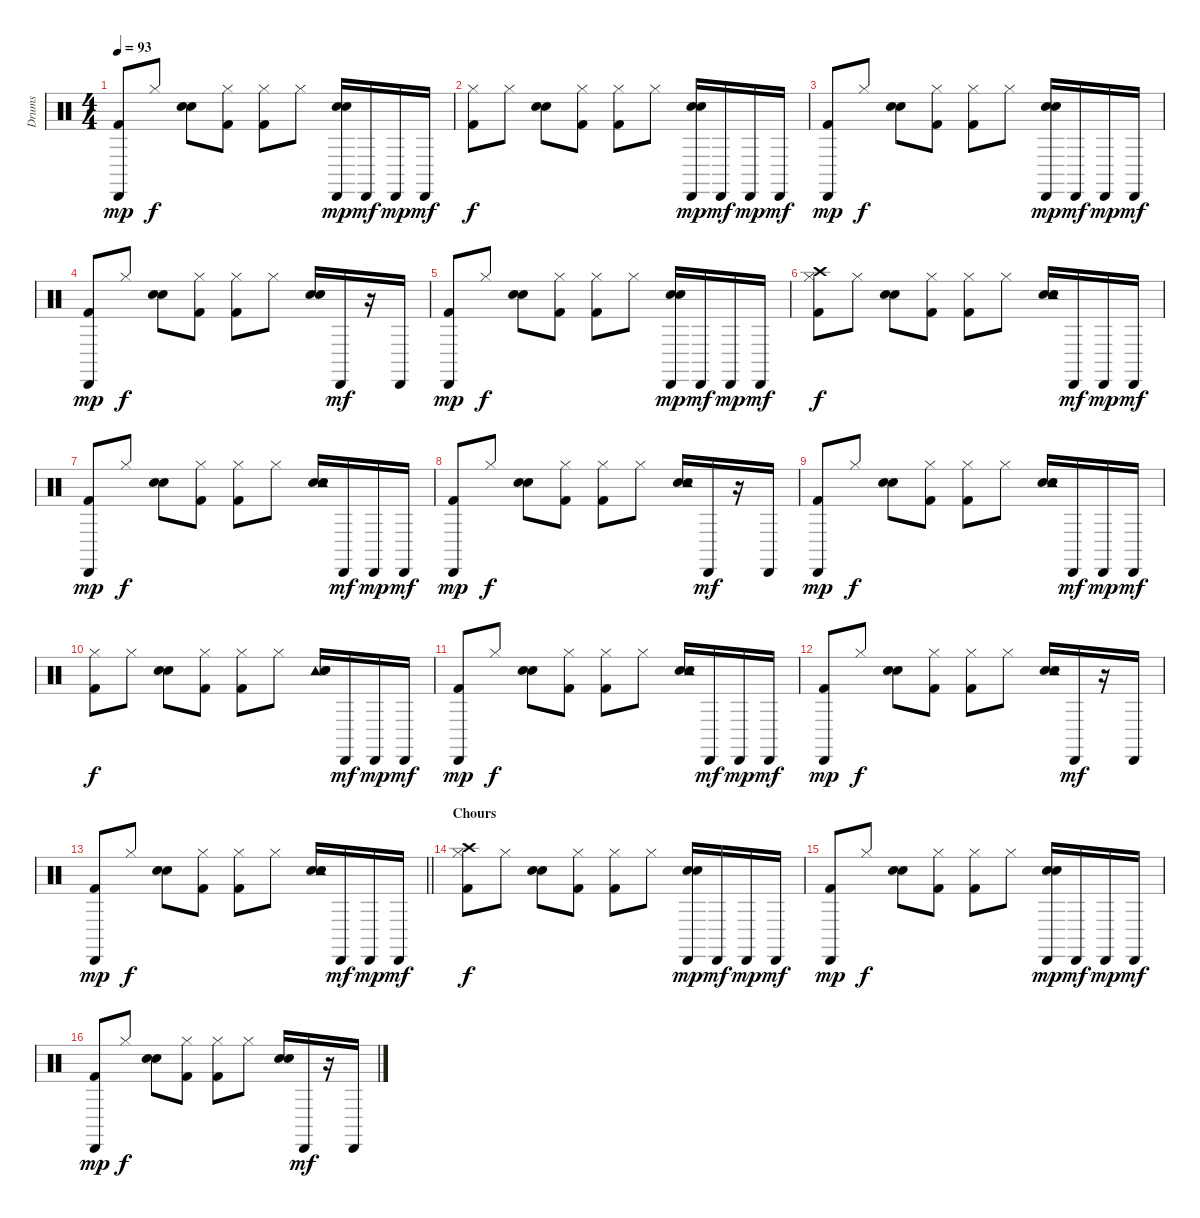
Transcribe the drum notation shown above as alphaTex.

\track ("Drums" "Drums") {instrument percussion}
\staff {score}
\articulation defaults
\ts (4 4)
\tempo 93
\clef neutral
\ks c
("Kick (hit) 2" "Cabasa (hit)").8{dy mp} "Hi-Hat (closed)".8{dy f} ("Hand Clap (hit)" "Snare (hit) 2").8 ("Hi-Hat (closed)" "Kick (hit) 2").8 ("Kick (hit) 2" "Hi-Hat (closed)").8 "Hi-Hat (closed)".8 ("Cabasa (hit)" "Snare (hit) 2" "Hand Clap (hit)").16{dy mp} "Cabasa (hit)".16{dy mf} "Cabasa (hit)".16{dy mp} "Cabasa (hit)".16{dy mf} |
("Hi-Hat (closed)" "Kick (hit) 2").8{dy f} "Hi-Hat (closed)".8 ("Hand Clap (hit)" "Snare (hit) 2").8 ("Kick (hit) 2" "Hi-Hat (closed)").8 ("Kick (hit) 2" "Hi-Hat (closed)").8 "Hi-Hat (closed)".8 ("Cabasa (hit)" "Snare (hit) 2" "Hand Clap (hit)").16{dy mp} "Cabasa (hit)".16{dy mf} "Cabasa (hit)".16{dy mp} "Cabasa (hit)".16{dy mf} |
("Cabasa (hit)" "Kick (hit) 2").8{dy mp} "Hi-Hat (closed)".8{dy f} ("Snare (hit) 2" "Hand Clap (hit)").8 ("Kick (hit) 2" "Hi-Hat (closed)").8 ("Kick (hit) 2" "Hi-Hat (closed)").8 "Hi-Hat (closed)".8 ("Snare (hit) 2" "Cabasa (hit)" "Hand Clap (hit)").16{dy mp} "Cabasa (hit)".16{dy mf} "Cabasa (hit)".16{dy mp} "Cabasa (hit)".16{dy mf} |
("Cabasa (hit)" "Kick (hit) 2").8{dy mp} "Hi-Hat (closed)".8{dy f} ("Snare (hit) 2" "Hand Clap (hit)").8 ("Kick (hit) 2" "Hi-Hat (closed)").8 ("Hi-Hat (closed)" "Kick (hit) 2").8 "Hi-Hat (closed)".8 ("Hand Clap (hit)" "Snare (hit) 2").16 "Cabasa (hit)".16{dy mf} r.16 "Cabasa (hit)".16 |
("Cabasa (hit)" "Kick (hit) 2").8{dy mp} "Hi-Hat (closed)".8{dy f} ("Snare (hit) 2" "Hand Clap (hit)").8 ("Kick (hit) 2" "Hi-Hat (closed)").8 ("Kick (hit) 2" "Hi-Hat (closed)").8 "Hi-Hat (closed)".8 ("Snare (hit) 2" "Hand Clap (hit)" "Cabasa (hit)").16{dy mp} "Cabasa (hit)".16{dy mf} "Cabasa (hit)".16{dy mp} "Cabasa (hit)".16{dy mf} |
("Hi-Hat (closed)" "Kick (hit) 2" "Crash high (hit)").8{dy f} "Hi-Hat (closed)".8 ("Hand Clap (hit)" "Snare (hit) 2").8 ("Kick (hit) 2" "Hi-Hat (closed)").8 ("Kick (hit) 2" "Hi-Hat (closed)").8 "Hi-Hat (closed)".8 ("Hand Clap (hit)" "Snare (hit) 2" "Tambourine (hit)").16 "Cabasa (hit)".16{dy mf} "Cabasa (hit)".16{dy mp} "Cabasa (hit)".16{dy mf} |
("Kick (hit) 2" "Cabasa (hit)").8{dy mp} "Hi-Hat (closed)".8{dy f} ("Hand Clap (hit)" "Snare (hit) 2").8 ("Hi-Hat (closed)" "Kick (hit) 2").8 ("Kick (hit) 2" "Hi-Hat (closed)").8 "Hi-Hat (closed)".8 ("Snare (hit) 2" "Tambourine (hit)" "Hand Clap (hit)").16 "Cabasa (hit)".16{dy mf} "Cabasa (hit)".16{dy mp} "Cabasa (hit)".16{dy mf} |
("Kick (hit) 2" "Cabasa (hit)").8{dy mp} "Hi-Hat (closed)".8{dy f} ("Hand Clap (hit)" "Snare (hit) 2").8 ("Hi-Hat (closed)" "Kick (hit) 2").8 ("Kick (hit) 2" "Hi-Hat (closed)").8 "Hi-Hat (closed)".8 ("Hand Clap (hit)" "Snare (hit) 2" "Tambourine (hit)").16 "Cabasa (hit)".16{dy mf} r.16 "Cabasa (hit)".16 |
("Kick (hit) 2" "Cabasa (hit)").8{dy mp} "Hi-Hat (closed)".8{dy f} ("Snare (hit) 2" "Hand Clap (hit)").8 ("Hi-Hat (closed)" "Kick (hit) 2").8 ("Hi-Hat (closed)" "Kick (hit) 2").8 "Hi-Hat (closed)".8 ("Hand Clap (hit)" "Tambourine (hit)" "Snare (hit) 2").16 "Cabasa (hit)".16{dy mf} "Cabasa (hit)".16{dy mp} "Cabasa (hit)".16{dy mf} |
("Kick (hit) 2" "Hi-Hat (closed)").8{dy f} "Hi-Hat (closed)".8 ("Hand Clap (hit)" "Snare (hit) 2").8 ("Hi-Hat (closed)" "Kick (hit) 2").8 ("Kick (hit) 2" "Hi-Hat (closed)").8 "Hi-Hat (closed)".8 ("Tambourine (hit)" "Snare (hit) 2" "Hand Clap (hit)").16 "Cabasa (hit)".16{dy mf} "Cabasa (hit)".16{dy mp} "Cabasa (hit)".16{dy mf} |
("Cabasa (hit)" "Kick (hit) 2").8{dy mp} "Hi-Hat (closed)".8{dy f} ("Hand Clap (hit)" "Snare (hit) 2").8 ("Kick (hit) 2" "Hi-Hat (closed)").8 ("Kick (hit) 2" "Hi-Hat (closed)").8 "Hi-Hat (closed)".8 ("Snare (hit) 2" "Hand Clap (hit)" "Tambourine (hit)").16 "Cabasa (hit)".16{dy mf} "Cabasa (hit)".16{dy mp} "Cabasa (hit)".16{dy mf} |
("Kick (hit) 2" "Cabasa (hit)").8{dy mp} "Hi-Hat (closed)".8{dy f} ("Hand Clap (hit)" "Snare (hit) 2").8 ("Hi-Hat (closed)" "Kick (hit) 2").8 ("Kick (hit) 2" "Hi-Hat (closed)").8 "Hi-Hat (closed)".8 ("Snare (hit) 2" "Tambourine (hit)" "Hand Clap (hit)").16 "Cabasa (hit)".16{dy mf} r.16 "Cabasa (hit)".16 |
\barLineRight lightlight
("Cabasa (hit)" "Kick (hit) 2").8{dy mp} "Hi-Hat (closed)".8{dy f} ("Snare (hit) 2" "Hand Clap (hit)").8 ("Hi-Hat (closed)" "Kick (hit) 2").8 ("Kick (hit) 2" "Hi-Hat (closed)").8 "Hi-Hat (closed)".8 ("Snare (hit) 2" "Tambourine (hit)" "Hand Clap (hit)").16 "Cabasa (hit)".16{dy mf} "Cabasa (hit)".16{dy mp} "Cabasa (hit)".16{dy mf} |
\section ("" "Chours")
("Kick (hit) 2" "Crash high (hit)" "Hi-Hat (closed)").8{dy f} "Hi-Hat (closed)".8 ("Hand Clap (hit)" "Snare (hit) 2").8 ("Hi-Hat (closed)" "Kick (hit) 2").8 ("Hi-Hat (closed)" "Kick (hit) 2").8 "Hi-Hat (closed)".8 ("Snare (hit) 2" "Cabasa (hit)" "Hand Clap (hit)").16{dy mp} "Cabasa (hit)".16{dy mf} "Cabasa (hit)".16{dy mp} "Cabasa (hit)".16{dy mf} |
("Cabasa (hit)" "Kick (hit) 2").8{dy mp} "Hi-Hat (closed)".8{dy f} ("Snare (hit) 2" "Hand Clap (hit)").8 ("Hi-Hat (closed)" "Kick (hit) 2").8 ("Hi-Hat (closed)" "Kick (hit) 2").8 "Hi-Hat (closed)".8 ("Snare (hit) 2" "Hand Clap (hit)" "Cabasa (hit)").16{dy mp} "Cabasa (hit)".16{dy mf} "Cabasa (hit)".16{dy mp} "Cabasa (hit)".16{dy mf} |
("Kick (hit) 2" "Cabasa (hit)").8{dy mp} "Hi-Hat (closed)".8{dy f} ("Hand Clap (hit)" "Snare (hit) 2").8 ("Hi-Hat (closed)" "Kick (hit) 2").8 ("Kick (hit) 2" "Hi-Hat (closed)").8 "Hi-Hat (closed)".8 ("Hand Clap (hit)" "Snare (hit) 2").16 "Cabasa (hit)".16{dy mf} r.16 "Cabasa (hit)".16
